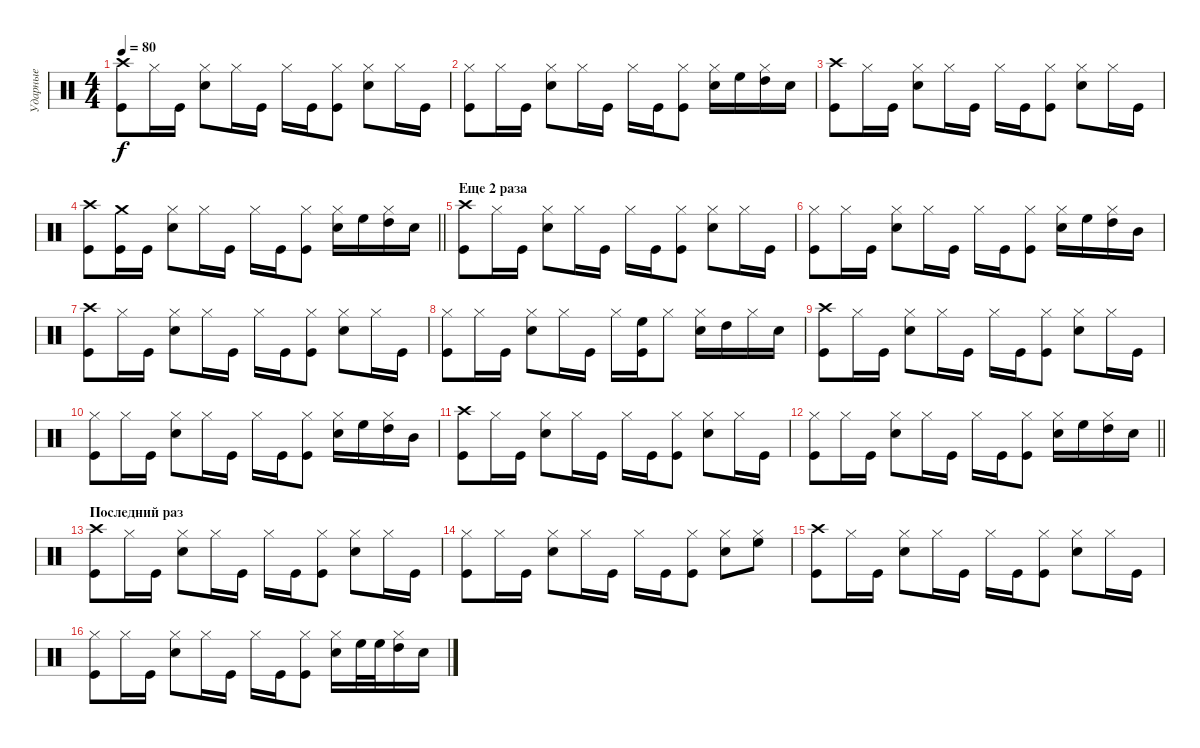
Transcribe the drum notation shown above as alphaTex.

\track ("Ударные" "Ударные") {instrument percussion}
\staff {score}
\articulation defaults
\ts (4 4)
\tempo 80
\clef neutral
\ks c
("Crash high (hit)" "Kick (hit)").8{dy f} "Hi-Hat (closed)".16 "Kick (hit)".16 ("Hi-Hat (closed)" "Snare (hit) 2").8 "Hi-Hat (closed)".16 "Kick (hit)".16 "Hi-Hat (closed)".16 "Kick (hit)".16 ("Hi-Hat (closed)" "Kick (hit)").8 ("Hi-Hat (closed)" "Snare (hit) 2").8 "Hi-Hat (closed)".16 "Kick (hit)".16 |
("Hi-Hat (closed)" "Kick (hit)").8 "Hi-Hat (closed)".16 "Kick (hit)".16 ("Hi-Hat (closed)" "Snare (hit) 2").8 "Hi-Hat (closed)".16 "Kick (hit)".16 "Hi-Hat (closed)".16 "Kick (hit)".16 ("Hi-Hat (closed)" "Kick (hit)").8 ("Hi-Hat (closed)" "Snare (hit) 2").16 "High Floor Tom (hit)".16 ("Hi-Hat (closed)" "High Tom (hit)").16 "Snare (hit) 2".16 |
("Crash high (hit)" "Kick (hit)").8 "Hi-Hat (closed)".16 "Kick (hit)".16 ("Hi-Hat (closed)" "Snare (hit) 2").8 "Hi-Hat (closed)".16 "Kick (hit)".16 "Hi-Hat (closed)".16 "Kick (hit)".16 ("Hi-Hat (closed)" "Kick (hit)").8 ("Hi-Hat (closed)" "Snare (hit) 2").8 "Hi-Hat (closed)".16 "Kick (hit)".16 |
\barLineRight lightlight
("Crash high (hit)" "Kick (hit)").8 ("Crash medium (hit)" "Kick (hit)").16 "Kick (hit)".16 ("Hi-Hat (closed)" "Snare (hit) 2").8 "Hi-Hat (closed)".16 "Kick (hit)".16 "Hi-Hat (closed)".16 "Kick (hit)".16 ("Hi-Hat (closed)" "Kick (hit)").8 ("Hi-Hat (closed)" "Snare (hit) 2").16 "High Floor Tom (hit)".16 ("Hi-Hat (closed)" "High Tom (hit)").16 "Snare (hit) 2".16 |
\section ("" "Еще 2 раза")
("Crash high (hit)" "Kick (hit)").8 "Hi-Hat (closed)".16 "Kick (hit)".16 ("Hi-Hat (closed)" "Snare (hit) 2").8 "Hi-Hat (closed)".16 "Kick (hit)".16 "Hi-Hat (closed)".16 "Kick (hit)".16 ("Hi-Hat (closed)" "Kick (hit)").8 ("Hi-Hat (closed)" "Snare (hit) 2").8 "Hi-Hat (closed)".16 "Kick (hit)".16 |
("Hi-Hat (closed)" "Kick (hit)").8 "Hi-Hat (closed)".16 "Kick (hit)".16 ("Hi-Hat (closed)" "Snare (hit) 2").8 "Hi-Hat (closed)".16 "Kick (hit)".16 "Hi-Hat (closed)".16 "Kick (hit)".16 ("Hi-Hat (closed)" "Kick (hit)").8 ("Hi-Hat (closed)" "Snare (hit) 2").16 "High Floor Tom (hit)".16 ("Hi-Hat (closed)" "High Tom (hit)").16 "Mid Tom (hit)".16 |
("Crash high (hit)" "Kick (hit)").8 "Hi-Hat (closed)".16 "Kick (hit)".16 ("Hi-Hat (closed)" "Snare (hit) 2").8 "Hi-Hat (closed)".16 "Kick (hit)".16 "Hi-Hat (closed)".16 "Kick (hit)".16 ("Hi-Hat (closed)" "Kick (hit)").8 ("Hi-Hat (closed)" "Snare (hit) 2").8 "Hi-Hat (closed)".16 "Kick (hit)".16 |
("Hi-Hat (closed)" "Kick (hit)").8 "Hi-Hat (closed)".16 "Kick (hit)".16 ("Hi-Hat (closed)" "Snare (hit) 2").8 "Hi-Hat (closed)".16 "Kick (hit)".16 "Hi-Hat (closed)".16 ("High Floor Tom (hit)" "Kick (hit)").16 "Hi-Hat (closed)".8 ("Hi-Hat (closed)" "Snare (hit) 2").16 "High Tom (hit)".16 "Hi-Hat (closed)".16 "Snare (hit) 2".16 |
("Crash high (hit)" "Kick (hit)").8 "Hi-Hat (closed)".16 "Kick (hit)".16 ("Hi-Hat (closed)" "Snare (hit) 2").8 "Hi-Hat (closed)".16 "Kick (hit)".16 "Hi-Hat (closed)".16 "Kick (hit)".16 ("Hi-Hat (closed)" "Kick (hit)").8 ("Hi-Hat (closed)" "Snare (hit) 2").8 "Hi-Hat (closed)".16 "Kick (hit)".16 |
("Hi-Hat (closed)" "Kick (hit)").8 "Hi-Hat (closed)".16 "Kick (hit)".16 ("Hi-Hat (closed)" "Snare (hit) 2").8 "Hi-Hat (closed)".16 "Kick (hit)".16 "Hi-Hat (closed)".16 "Kick (hit)".16 ("Hi-Hat (closed)" "Kick (hit)").8 ("Hi-Hat (closed)" "Snare (hit) 2").16 "High Floor Tom (hit)".16 ("Hi-Hat (closed)" "High Tom (hit)").16 "Mid Tom (hit)".16 |
("Crash high (hit)" "Kick (hit)").8 "Hi-Hat (closed)".16 "Kick (hit)".16 ("Hi-Hat (closed)" "Snare (hit) 2").8 "Hi-Hat (closed)".16 "Kick (hit)".16 "Hi-Hat (closed)".16 "Kick (hit)".16 ("Hi-Hat (closed)" "Kick (hit)").8 ("Hi-Hat (closed)" "Snare (hit) 2").8 "Hi-Hat (closed)".16 "Kick (hit)".16 |
\barLineRight lightlight
("Hi-Hat (closed)" "Kick (hit)").8 "Hi-Hat (closed)".16 "Kick (hit)".16 ("Hi-Hat (closed)" "Snare (hit) 2").8 "Hi-Hat (closed)".16 "Kick (hit)".16 "Hi-Hat (closed)".16 "Kick (hit)".16 ("Hi-Hat (closed)" "Kick (hit)").8 ("Hi-Hat (closed)" "Snare (hit) 2").16 "High Floor Tom (hit)".16 ("Hi-Hat (closed)" "High Tom (hit)").16 "Snare (hit) 2".16 |
\section ("" "Последний раз")
("Crash high (hit)" "Kick (hit)").8 "Hi-Hat (closed)".16 "Kick (hit)".16 ("Hi-Hat (closed)" "Snare (hit) 2").8 "Hi-Hat (closed)".16 "Kick (hit)".16 "Hi-Hat (closed)".16 "Kick (hit)".16 ("Hi-Hat (closed)" "Kick (hit)").8 ("Hi-Hat (closed)" "Snare (hit) 2").8 "Hi-Hat (closed)".16 "Kick (hit)".16 |
("Hi-Hat (closed)" "Kick (hit)").8 "Hi-Hat (closed)".16 "Kick (hit)".16 ("Hi-Hat (closed)" "Snare (hit) 2").8 "Hi-Hat (closed)".16 "Kick (hit)".16 "Hi-Hat (closed)".16 "Kick (hit)".16 ("Hi-Hat (closed)" "Kick (hit)").8 ("Hi-Hat (closed)" "Snare (hit) 2").8 ("Hi-Hat (closed)" "High Floor Tom (hit)").8 |
("Crash high (hit)" "Kick (hit)").8 "Hi-Hat (closed)".16 "Kick (hit)".16 ("Hi-Hat (closed)" "Snare (hit) 2").8 "Hi-Hat (closed)".16 "Kick (hit)".16 "Hi-Hat (closed)".16 "Kick (hit)".16 ("Hi-Hat (closed)" "Kick (hit)").8 ("Hi-Hat (closed)" "Snare (hit) 2").8 "Hi-Hat (closed)".16 "Kick (hit)".16 |
("Hi-Hat (closed)" "Kick (hit)").8 "Hi-Hat (closed)".16 "Kick (hit)".16 ("Hi-Hat (closed)" "Snare (hit) 2").8 "Hi-Hat (closed)".16 "Kick (hit)".16 "Hi-Hat (closed)".16 "Kick (hit)".16 ("Hi-Hat (closed)" "Kick (hit)").8 ("Hi-Hat (closed)" "Snare (hit) 2").16 "High Floor Tom (hit)".32 "High Floor Tom (hit)".32 ("Hi-Hat (closed)" "High Tom (hit)").16 "Snare (hit) 2".16
